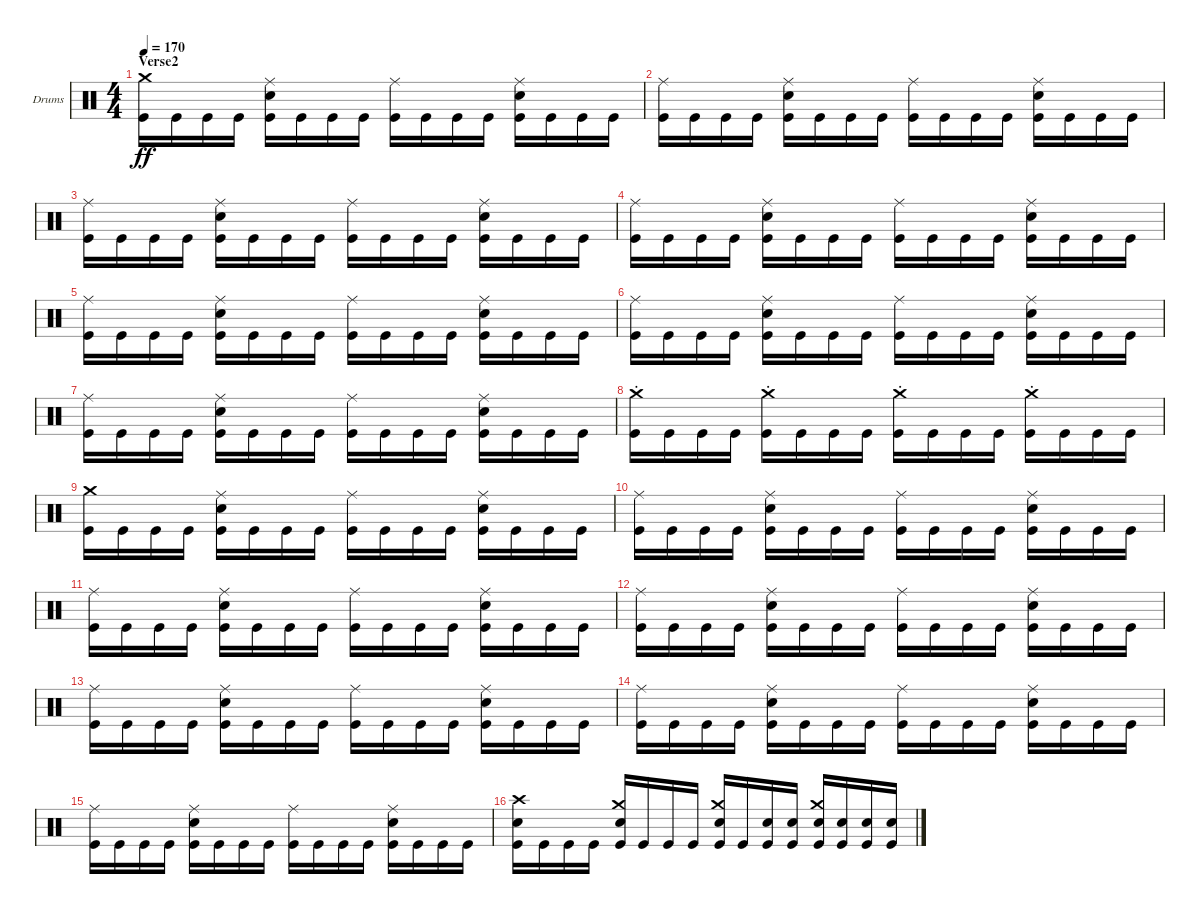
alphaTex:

\defaultSystemsLayout 4
\bracketExtendMode groupsimilarinstruments
\firstSystemTrackNameOrientation horizontal
\otherSystemsTrackNameOrientation horizontal
\track ("Inferno" "Drums") {instrument percussion}
\staff {score}
\articulation defaults
\ts (4 4)
\section ("" "Verse2")
\tempo 170
\clef neutral
\ks c
("Kick (hit)" "Crash medium (hit)").16{dy ff} "Kick (hit)".16 "Kick (hit)".16 "Kick (hit)".16 ("Kick (hit)" "Snare (hit) 2" "Ride (middle)").16 "Kick (hit)".16 "Kick (hit)".16 "Kick (hit)".16 ("Kick (hit)" "Ride (middle)").16 "Kick (hit)".16 "Kick (hit)".16 "Kick (hit)".16 ("Kick (hit)" "Ride (middle)" "Snare (hit) 2").16 "Kick (hit)".16 "Kick (hit)".16 "Kick (hit)".16 |
("Kick (hit)" "Ride (middle)").16 "Kick (hit)".16 "Kick (hit)".16 "Kick (hit)".16 ("Kick (hit)" "Snare (hit) 2" "Ride (middle)").16 "Kick (hit)".16 "Kick (hit)".16 "Kick (hit)".16 ("Kick (hit)" "Ride (middle)").16 "Kick (hit)".16 "Kick (hit)".16 "Kick (hit)".16 ("Kick (hit)" "Ride (middle)" "Snare (hit) 2").16 "Kick (hit)".16 "Kick (hit)".16 "Kick (hit)".16 |
("Kick (hit)" "Ride (middle)").16 "Kick (hit)".16 "Kick (hit)".16 "Kick (hit)".16 ("Kick (hit)" "Ride (middle)" "Snare (hit) 2").16 "Kick (hit)".16 "Kick (hit)".16 "Kick (hit)".16 ("Kick (hit)" "Ride (middle)").16 "Kick (hit)".16 "Kick (hit)".16 "Kick (hit)".16 ("Kick (hit)" "Ride (middle)" "Snare (hit) 2").16 "Kick (hit)".16 "Kick (hit)".16 "Kick (hit)".16 |
("Kick (hit)" "Ride (middle)").16 "Kick (hit)".16 "Kick (hit)".16 "Kick (hit)".16 ("Kick (hit)" "Snare (hit) 2" "Ride (middle)").16 "Kick (hit)".16 "Kick (hit)".16 "Kick (hit)".16 ("Kick (hit)" "Ride (middle)").16 "Kick (hit)".16 "Kick (hit)".16 "Kick (hit)".16 ("Kick (hit)" "Snare (hit) 2" "Ride (middle)").16 "Kick (hit)".16 "Kick (hit)".16 "Kick (hit)".16 |
("Kick (hit)" "Ride (middle)").16 "Kick (hit)".16 "Kick (hit)".16 "Kick (hit)".16 ("Kick (hit)" "Ride (middle)" "Snare (hit) 2").16 "Kick (hit)".16 "Kick (hit)".16 "Kick (hit)".16 ("Kick (hit)" "Ride (middle)").16 "Kick (hit)".16 "Kick (hit)".16 "Kick (hit)".16 ("Kick (hit)" "Ride (middle)" "Snare (hit) 2").16 "Kick (hit)".16 "Kick (hit)".16 "Kick (hit)".16 |
("Kick (hit)" "Ride (middle)").16 "Kick (hit)".16 "Kick (hit)".16 "Kick (hit)".16 ("Kick (hit)" "Ride (middle)" "Snare (hit) 2").16 "Kick (hit)".16 "Kick (hit)".16 "Kick (hit)".16 ("Kick (hit)" "Ride (middle)").16 "Kick (hit)".16 "Kick (hit)".16 "Kick (hit)".16 ("Kick (hit)" "Ride (middle)" "Snare (hit) 2").16 "Kick (hit)".16 "Kick (hit)".16 "Kick (hit)".16 |
("Kick (hit)" "Ride (middle)").16 "Kick (hit)".16 "Kick (hit)".16 "Kick (hit)".16 ("Kick (hit)" "Snare (hit) 2" "Ride (middle)").16 "Kick (hit)".16 "Kick (hit)".16 "Kick (hit)".16 ("Kick (hit)" "Ride (middle)").16 "Kick (hit)".16 "Kick (hit)".16 "Kick (hit)".16 ("Kick (hit)" "Ride (middle)" "Snare (hit) 2").16 "Kick (hit)".16 "Kick (hit)".16 "Kick (hit)".16 |
("Kick (hit)" "Crash medium (hit)"{st}).16 "Kick (hit)".16 "Kick (hit)".16 "Kick (hit)".16 ("Kick (hit)" "Crash medium (hit)"{st}).16 "Kick (hit)".16 "Kick (hit)".16 "Kick (hit)".16 ("Kick (hit)" "Crash medium (hit)"{st}).16 "Kick (hit)".16 "Kick (hit)".16 "Kick (hit)".16 ("Kick (hit)" "Crash medium (hit)"{st}).16 "Kick (hit)".16 "Kick (hit)".16 "Kick (hit)".16 |
("Kick (hit)" "Crash medium (hit)").16 "Kick (hit)".16 "Kick (hit)".16 "Kick (hit)".16 ("Kick (hit)" "Snare (hit) 2" "Ride (middle)").16 "Kick (hit)".16 "Kick (hit)".16 "Kick (hit)".16 ("Kick (hit)" "Ride (middle)").16 "Kick (hit)".16 "Kick (hit)".16 "Kick (hit)".16 ("Kick (hit)" "Ride (middle)" "Snare (hit) 2").16 "Kick (hit)".16 "Kick (hit)".16 "Kick (hit)".16 |
("Kick (hit)" "Ride (middle)").16 "Kick (hit)".16 "Kick (hit)".16 "Kick (hit)".16 ("Kick (hit)" "Snare (hit) 2" "Ride (middle)").16 "Kick (hit)".16 "Kick (hit)".16 "Kick (hit)".16 ("Kick (hit)" "Ride (middle)").16 "Kick (hit)".16 "Kick (hit)".16 "Kick (hit)".16 ("Kick (hit)" "Ride (middle)" "Snare (hit) 2").16 "Kick (hit)".16 "Kick (hit)".16 "Kick (hit)".16 |
("Kick (hit)" "Ride (middle)").16 "Kick (hit)".16 "Kick (hit)".16 "Kick (hit)".16 ("Kick (hit)" "Ride (middle)" "Snare (hit) 2").16 "Kick (hit)".16 "Kick (hit)".16 "Kick (hit)".16 ("Kick (hit)" "Ride (middle)").16 "Kick (hit)".16 "Kick (hit)".16 "Kick (hit)".16 ("Kick (hit)" "Ride (middle)" "Snare (hit) 2").16 "Kick (hit)".16 "Kick (hit)".16 "Kick (hit)".16 |
("Kick (hit)" "Ride (middle)").16 "Kick (hit)".16 "Kick (hit)".16 "Kick (hit)".16 ("Kick (hit)" "Snare (hit) 2" "Ride (middle)").16 "Kick (hit)".16 "Kick (hit)".16 "Kick (hit)".16 ("Kick (hit)" "Ride (middle)").16 "Kick (hit)".16 "Kick (hit)".16 "Kick (hit)".16 ("Kick (hit)" "Snare (hit) 2" "Ride (middle)").16 "Kick (hit)".16 "Kick (hit)".16 "Kick (hit)".16 |
("Kick (hit)" "Ride (middle)").16 "Kick (hit)".16 "Kick (hit)".16 "Kick (hit)".16 ("Kick (hit)" "Ride (middle)" "Snare (hit) 2").16 "Kick (hit)".16 "Kick (hit)".16 "Kick (hit)".16 ("Kick (hit)" "Ride (middle)").16 "Kick (hit)".16 "Kick (hit)".16 "Kick (hit)".16 ("Kick (hit)" "Ride (middle)" "Snare (hit) 2").16 "Kick (hit)".16 "Kick (hit)".16 "Kick (hit)".16 |
("Kick (hit)" "Ride (middle)").16 "Kick (hit)".16 "Kick (hit)".16 "Kick (hit)".16 ("Kick (hit)" "Ride (middle)" "Snare (hit) 2").16 "Kick (hit)".16 "Kick (hit)".16 "Kick (hit)".16 ("Kick (hit)" "Ride (middle)").16 "Kick (hit)".16 "Kick (hit)".16 "Kick (hit)".16 ("Kick (hit)" "Ride (middle)" "Snare (hit) 2").16 "Kick (hit)".16 "Kick (hit)".16 "Kick (hit)".16 |
("Kick (hit)" "Ride (middle)").16 "Kick (hit)".16 "Kick (hit)".16 "Kick (hit)".16 ("Kick (hit)" "Snare (hit) 2" "Ride (middle)").16 "Kick (hit)".16 "Kick (hit)".16 "Kick (hit)".16 ("Kick (hit)" "Ride (middle)").16 "Kick (hit)".16 "Kick (hit)".16 "Kick (hit)".16 ("Kick (hit)" "Ride (middle)" "Snare (hit) 2").16 "Kick (hit)".16 "Kick (hit)".16 "Kick (hit)".16 |
("Kick (hit)" "Crash high (hit)" "Snare (hit) 2").16 "Kick (hit)".16 "Kick (hit)".16 "Kick (hit)".16 ("Kick (hit)" "Crash medium (hit)" "Snare (hit) 2").16 "Kick (hit)".16 "Kick (hit)".16 "Kick (hit)".16 ("Kick (hit)" "Crash medium (hit)" "Snare (hit) 2").16 "Kick (hit)".16 ("Kick (hit)" "Snare (hit) 2").16 ("Kick (hit)" "Snare (hit) 2").16 ("Kick (hit)" "Crash medium (hit)" "Snare (hit) 2").16 ("Kick (hit)" "Snare (hit) 2").16 ("Kick (hit)" "Snare (hit) 2").16 ("Kick (hit)" "Snare (hit) 2").16
